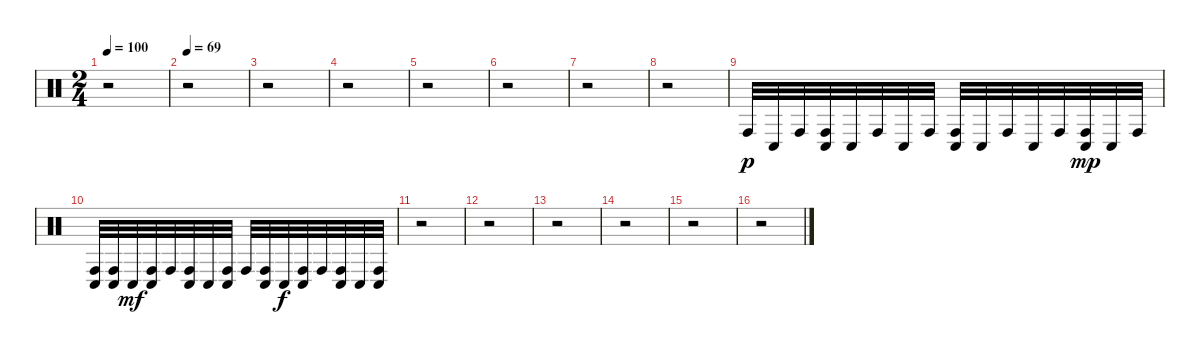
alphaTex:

\track "" {instrument percussion}
\staff {score}
\articulation defaults
\ts (2 4)
\tempo 100
\clef neutral
\ks c
r.2{dy p} |
\tempo 69
r.2 |
r.2 |
r.2 |
r.2 |
r.2 |
r.2 |
r.2 |
"Conga high (hit)".32 "Conga low (hit)".32 "Conga high (hit)".32 ("Conga low (hit)" "Conga high (hit)").32 "Conga low (hit)".32 "Conga high (hit)".32 "Conga low (hit)".32 "Conga high (hit)".32 ("Conga low (hit)" "Conga high (hit)").32 "Conga low (hit)".32 "Conga high (hit)".32 "Conga low (hit)".32 "Conga high (hit)".32 ("Conga low (hit)" "Conga high (hit)").32{dy mp} "Conga low (hit)".32 "Conga high (hit)".32 |
("Conga low (hit)" "Conga high (hit)").32 ("Conga low (hit)" "Conga high (hit)").32 "Conga low (hit)".32{dy mf} ("Conga high (hit)" "Conga low (hit)").32 "Conga high (hit)".32 ("Conga low (hit)" "Conga high (hit)").32 "Conga low (hit)".32 ("Conga high (hit)" "Conga low (hit)").32 "Conga high (hit)".32 ("Conga low (hit)" "Conga high (hit)").32 "Conga low (hit)".32{dy f} ("Conga high (hit)" "Conga low (hit)").32 "Conga high (hit)".32 ("Conga low (hit)" "Conga high (hit)").32 "Conga low (hit)".32 ("Conga high (hit)" "Conga low (hit)").32 |
r.2 |
r.2 |
r.2 |
r.2 |
r.2 |
r.2
